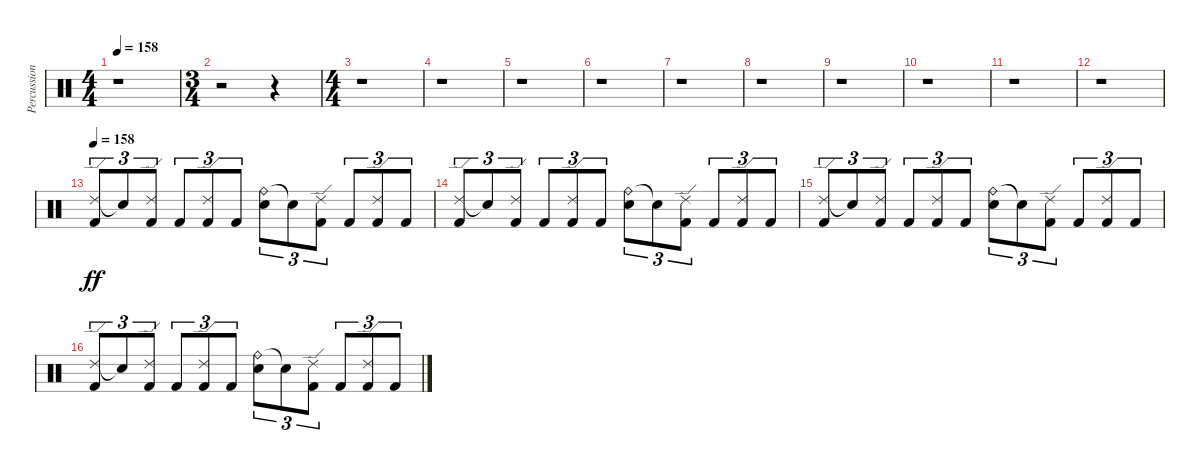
\track ("Percussion" "Percussion") {instrument percussion}
\staff {score}
\articulation defaults
\ts (4 4)
\tempo 158
\clef neutral
\ks c
r.1{dy ff} |
\ts (3 4)
r.2 r.4 |
\ts (4 4)
r.1 |
r.1 |
r.1 |
r.1 |
r.1 |
r.1 |
r.1 |
r.1 |
r.1 |
r.1 |
\tempo 158
("Ride (edge) 2" "Kick (hit) 2").8{tu (3 2)} "Snare (hit)"{t}.8{tu (3 2)} ("Ride (edge) 2" "Kick (hit) 2").8{tu (3 2)} "Kick (hit) 2".8{tu (3 2)} ("Ride (edge) 2" "Kick (hit) 2").8{tu (3 2)} "Kick (hit) 2".8{tu (3 2)} ("Ride (bell)" "Snare (hit) 2").8{tu (3 2)} "Snare (hit)"{t}.8{tu (3 2)} ("Ride (edge) 2" "Kick (hit) 2").8{tu (3 2)} "Kick (hit) 2".8{tu (3 2)} ("Ride (edge) 2" "Kick (hit) 2").8{tu (3 2)} "Kick (hit) 2".8{tu (3 2)} |
("Ride (edge) 2" "Kick (hit) 2").8{tu (3 2)} "Snare (hit)"{t}.8{tu (3 2)} ("Ride (edge) 2" "Kick (hit) 2").8{tu (3 2)} "Kick (hit) 2".8{tu (3 2)} ("Ride (edge) 2" "Kick (hit) 2").8{tu (3 2)} "Kick (hit) 2".8{tu (3 2)} ("Ride (bell)" "Snare (hit) 2").8{tu (3 2)} "Snare (hit)"{t}.8{tu (3 2)} ("Ride (edge) 2" "Kick (hit) 2").8{tu (3 2)} "Kick (hit) 2".8{tu (3 2)} ("Ride (edge) 2" "Kick (hit) 2").8{tu (3 2)} "Kick (hit) 2".8{tu (3 2)} |
("Ride (edge) 2" "Kick (hit) 2").8{tu (3 2)} "Snare (hit)"{t}.8{tu (3 2)} ("Ride (edge) 2" "Kick (hit) 2").8{tu (3 2)} "Kick (hit) 2".8{tu (3 2)} ("Ride (edge) 2" "Kick (hit) 2").8{tu (3 2)} "Kick (hit) 2".8{tu (3 2)} ("Ride (bell)" "Snare (hit) 2").8{tu (3 2)} "Snare (hit)"{t}.8{tu (3 2)} ("Ride (edge) 2" "Kick (hit) 2").8{tu (3 2)} "Kick (hit) 2".8{tu (3 2)} ("Ride (edge) 2" "Kick (hit) 2").8{tu (3 2)} "Kick (hit) 2".8{tu (3 2)} |
("Ride (edge) 2" "Kick (hit) 2").8{tu (3 2)} "Snare (hit)"{t}.8{tu (3 2)} ("Ride (edge) 2" "Kick (hit) 2").8{tu (3 2)} "Kick (hit) 2".8{tu (3 2)} ("Ride (edge) 2" "Kick (hit) 2").8{tu (3 2)} "Kick (hit) 2".8{tu (3 2)} ("Ride (bell)" "Snare (hit) 2").8{tu (3 2)} "Snare (hit)"{t}.8{tu (3 2)} ("Ride (edge) 2" "Kick (hit) 2").8{tu (3 2)} "Kick (hit) 2".8{tu (3 2)} ("Ride (edge) 2" "Kick (hit) 2").8{tu (3 2)} "Kick (hit) 2".8{tu (3 2)}
